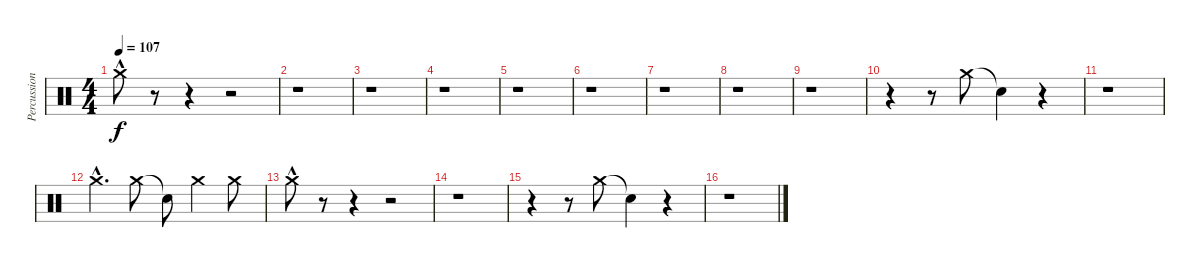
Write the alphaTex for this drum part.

\track ("Percussion" "Percussion") {instrument percussion}
\staff {score}
\articulation defaults
\ts (4 4)
\tempo 107
\clef neutral
\ks c "Crash medium (hit)"{hac}.8{dy f}
r.8 r.4 r.2 |
r.1 |
r.1 |
r.1 |
r.1 |
r.1 |
r.1 |
r.1 |
r.1 |
r.4 r.8 "Crash medium (hit)".8 "Snare (hit)"{t}.4 r.4 |
r.1 |
"Crash medium (hit)"{hac}.4{d} "Crash medium (hit)".8 "Snare (hit)"{t}.8 "Crash medium (hit)".4 "Crash medium (hit)".8 |
"Crash medium (hit)"{hac}.8 r.8 r.4 r.2 |
r.1 |
r.4 r.8 "Crash medium (hit)".8 "Snare (hit)"{t}.4 r.4 |
r.1
